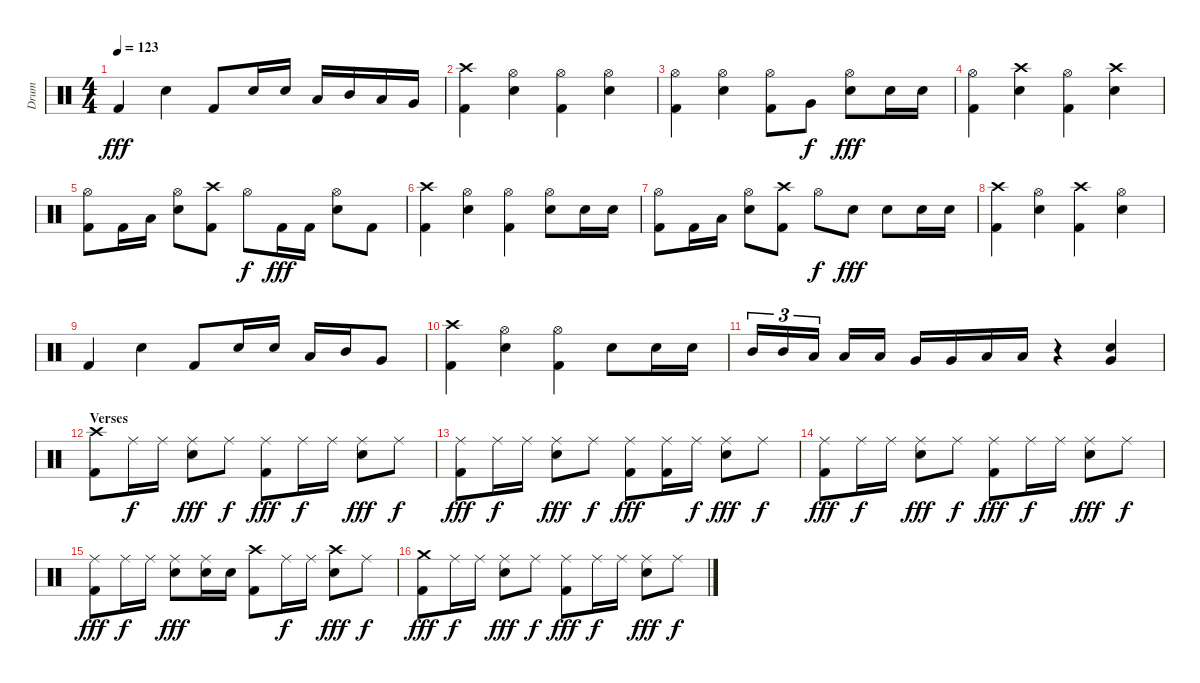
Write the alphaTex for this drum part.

\track ("Drum" "Drum") {instrument percussion}
\staff {score}
\articulation defaults
\ts (4 4)
\tempo 123
\clef neutral
\ks c "Kick (hit) 2".4{dy fff} "Electric Snare (hit)".4 "Kick (hit) 2".8 "Electric Snare (hit)".16 "Electric Snare (hit)".16 "Low Tom (hit)".16 "Mid Tom (hit)".16 "Low Tom (hit)".16 "Very Low Tom (hit)".16
|
("Crash high (hit)" "Kick (hit) 2").4 ("Hi-Hat (open)" "Electric Snare (hit)").4 ("Hi-Hat (open)" "Kick (hit) 2").4 ("Hi-Hat (open)" "Electric Snare (hit)").4 |
("Hi-Hat (open)" "Kick (hit) 2").4 ("Hi-Hat (open)" "Electric Snare (hit)").4 ("Hi-Hat (open)" "Kick (hit) 2").8 "Very Low Tom (hit)".8{dy f} ("Hi-Hat (open)" "Electric Snare (hit)").8{dy fff} "Electric Snare (hit)".16 "Electric Snare (hit)".16 |
("Hi-Hat (open)" "Kick (hit) 2").4 ("Crash high (hit)" "Electric Snare (hit)").4 ("Hi-Hat (open)" "Kick (hit) 2").4 ("Crash high (hit)" "Electric Snare (hit)").4 |
("Hi-Hat (open)" "Kick (hit) 2").8 "Kick (hit) 2".16 "Low Tom (hit)".16 ("Hi-Hat (open)" "Electric Snare (hit)").8 ("Crash high (hit)" "Kick (hit) 2").8 "Hi-Hat (open)".8{dy f} "Kick (hit) 2".16{dy fff} "Kick (hit) 2".16 ("Hi-Hat (open)" "Electric Snare (hit)").8 "Kick (hit) 2".8 |
("Crash high (hit)" "Kick (hit) 2").4 ("Hi-Hat (open)" "Electric Snare (hit)").4 ("Hi-Hat (open)" "Kick (hit) 2").4 ("Hi-Hat (open)" "Electric Snare (hit)").8 "Electric Snare (hit)".16 "Electric Snare (hit)".16 |
("Hi-Hat (open)" "Kick (hit) 2").8 "Kick (hit) 2".16 "Low Tom (hit)".16 ("Hi-Hat (open)" "Electric Snare (hit)").8 ("Crash high (hit)" "Kick (hit) 2").8 "Hi-Hat (open)".8{dy f} "Electric Snare (hit)".8{dy fff} "Electric Snare (hit)".8 "Electric Snare (hit)".16 "Electric Snare (hit)".16 |
("Crash high (hit)" "Kick (hit) 2").4 ("Hi-Hat (open)" "Electric Snare (hit)").4 ("Crash high (hit)" "Kick (hit) 2").4 ("Hi-Hat (open)" "Electric Snare (hit)").4 |
"Kick (hit) 2".4 "Electric Snare (hit)".4 "Kick (hit) 2".8 "Electric Snare (hit)".16 "Electric Snare (hit)".16 "Low Tom (hit)".16 "Mid Tom (hit)".16 "Very Low Tom (hit)".8 |
("Crash high (hit)" "Kick (hit) 2").4 ("Hi-Hat (open)" "Electric Snare (hit)").4 ("Hi-Hat (open)" "Kick (hit) 2").4 "Electric Snare (hit)".8 "Electric Snare (hit)".16 "Electric Snare (hit)".16 |
"Mid Tom (hit)".16{tu (3 2)} "Mid Tom (hit)".16{tu (3 2)} "Low Tom (hit)".16{tu (3 2)} "Low Tom (hit)".16 "Low Tom (hit)".16 "Very Low Tom (hit)".16 "Very Low Tom (hit)".16 "Low Floor Tom (hit)".16 "Low Floor Tom (hit)".16 r.4 ("Very Low Tom (hit)" "Electric Snare (hit)").4 |
\section ("" "Verses")
("Crash high (hit)" "Kick (hit) 2").8 "Ride (middle)".16{dy f} "Ride (middle)".16 ("Ride (middle)" "Electric Snare (hit)").8{dy fff} "Ride (middle)".8{dy f} ("Ride (middle)" "Kick (hit) 2").8{dy fff} "Ride (middle)".16{dy f} "Ride (middle)".16 ("Ride (middle)" "Electric Snare (hit)").8{dy fff} "Ride (middle)".8{dy f} |
("Ride (middle)" "Kick (hit) 2").8{dy fff} "Ride (middle)".16{dy f} "Ride (middle)".16 ("Ride (middle)" "Electric Snare (hit)").8{dy fff} "Ride (middle)".8{dy f} ("Ride (middle)" "Kick (hit) 2").8{dy fff} ("Ride (middle)" "Kick (hit) 2").16 "Ride (middle)".16{dy f} ("Ride (middle)" "Electric Snare (hit)").8{dy fff} "Ride (middle)".8{dy f} |
("Ride (middle)" "Kick (hit) 2").8{dy fff} "Ride (middle)".16{dy f} "Ride (middle)".16 ("Ride (middle)" "Electric Snare (hit)").8{dy fff} "Ride (middle)".8{dy f} ("Ride (middle)" "Kick (hit) 2").8{dy fff} "Ride (middle)".16{dy f} "Ride (middle)".16 ("Ride (middle)" "Electric Snare (hit)").8{dy fff} "Ride (middle)".8{dy f} |
("Ride (middle)" "Kick (hit) 2").8{dy fff} "Ride (middle)".16{dy f} "Ride (middle)".16 ("Ride (middle)" "Electric Snare (hit)").8{dy fff} ("Ride (middle)" "Electric Snare (hit)").16 "Electric Snare (hit)".16 ("Crash high (hit)" "Kick (hit) 2").8 "Ride (middle)".16{dy f} "Ride (middle)".16 ("Crash high (hit)" "Electric Snare (hit)").8{dy fff} "Ride (middle)".8{dy f} |
("Crash medium (hit)" "Kick (hit) 2").8{dy fff} "Ride (middle)".16{dy f} "Ride (middle)".16 ("Ride (middle)" "Electric Snare (hit)").8{dy fff} "Ride (middle)".8{dy f} ("Ride (middle)" "Kick (hit) 2").8{dy fff} "Ride (middle)".16{dy f} "Ride (middle)".16 ("Ride (middle)" "Electric Snare (hit)").8{dy fff} "Ride (middle)".8{dy f}
